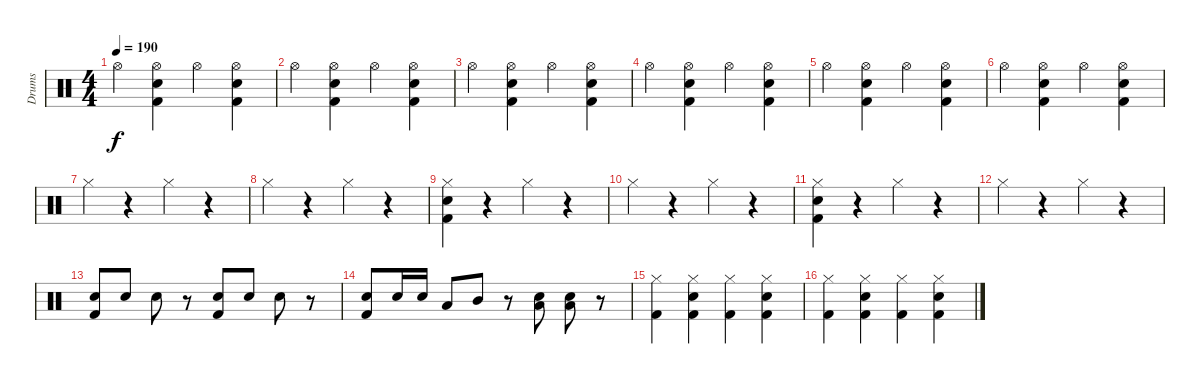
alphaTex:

\track ("Drums" "Drums") {instrument percussion}
\staff {score}
\articulation defaults
\ts (4 4)
\tempo 190
\clef neutral
\ks c "Hi-Hat (open)".4{dy f}
("Hi-Hat (open)" "Snare (hit) 2" "Kick (hit) 2").4 "Hi-Hat (open)".4 ("Hi-Hat (open)" "Snare (hit) 2" "Kick (hit) 2").4 |
"Hi-Hat (open)".4 ("Hi-Hat (open)" "Snare (hit) 2" "Kick (hit) 2").4 "Hi-Hat (open)".4 ("Hi-Hat (open)" "Snare (hit) 2" "Kick (hit) 2").4 |
"Hi-Hat (open)".4 ("Hi-Hat (open)" "Snare (hit) 2" "Kick (hit) 2").4 "Hi-Hat (open)".4 ("Hi-Hat (open)" "Snare (hit) 2" "Kick (hit) 2").4 |
"Hi-Hat (open)".4 ("Hi-Hat (open)" "Snare (hit) 2" "Kick (hit) 2").4 "Hi-Hat (open)".4 ("Hi-Hat (open)" "Snare (hit) 2" "Kick (hit) 2").4 |
"Hi-Hat (open)".4 ("Hi-Hat (open)" "Snare (hit) 2" "Kick (hit) 2").4 "Hi-Hat (open)".4 ("Hi-Hat (open)" "Snare (hit) 2" "Kick (hit) 2").4 |
"Hi-Hat (open)".4 ("Hi-Hat (open)" "Snare (hit) 2" "Kick (hit) 2").4 "Hi-Hat (open)".4 ("Hi-Hat (open)" "Snare (hit) 2" "Kick (hit) 2").4 |
"Hi-Hat (closed)".4 r.4 "Hi-Hat (closed)".4 r.4 |
"Hi-Hat (closed)".4 r.4 "Hi-Hat (closed)".4 r.4 |
("Hi-Hat (closed)" "Snare (hit) 2" "Kick (hit) 2").4 r.4 "Hi-Hat (closed)".4 r.4 |
"Hi-Hat (closed)".4 r.4 "Hi-Hat (closed)".4 r.4 |
("Hi-Hat (closed)" "Snare (hit) 2" "Kick (hit) 2").4 r.4 "Hi-Hat (closed)".4 r.4 |
"Hi-Hat (closed)".4 r.4 "Hi-Hat (closed)".4 r.4 |
("Snare (hit) 2" "Kick (hit) 2").8 "Snare (hit) 2".8 "Snare (hit) 2".8 r.8 ("Snare (hit) 2" "Kick (hit) 2").8 "Snare (hit) 2".8 "Snare (hit) 2".8 r.8 |
("Snare (hit) 2" "Kick (hit) 2").8 "Snare (hit) 2".16 "Snare (hit) 2".16 "Low Tom (hit)".8 "Mid Tom (hit)".8 r.8 ("Snare (hit) 2" "Low Floor Tom (hit)").8 ("Snare (hit) 2" "Low Floor Tom (hit)").8 r.8 |
("Hi-Hat (closed)" "Kick (hit) 2").4 ("Hi-Hat (closed)" "Snare (hit) 2" "Kick (hit) 2").4 ("Hi-Hat (closed)" "Kick (hit) 2").4 ("Hi-Hat (closed)" "Snare (hit) 2" "Kick (hit) 2").4 |
("Hi-Hat (closed)" "Kick (hit) 2").4 ("Hi-Hat (closed)" "Snare (hit) 2" "Kick (hit) 2").4 ("Hi-Hat (closed)" "Kick (hit) 2").4 ("Hi-Hat (closed)" "Snare (hit) 2" "Kick (hit) 2").4
